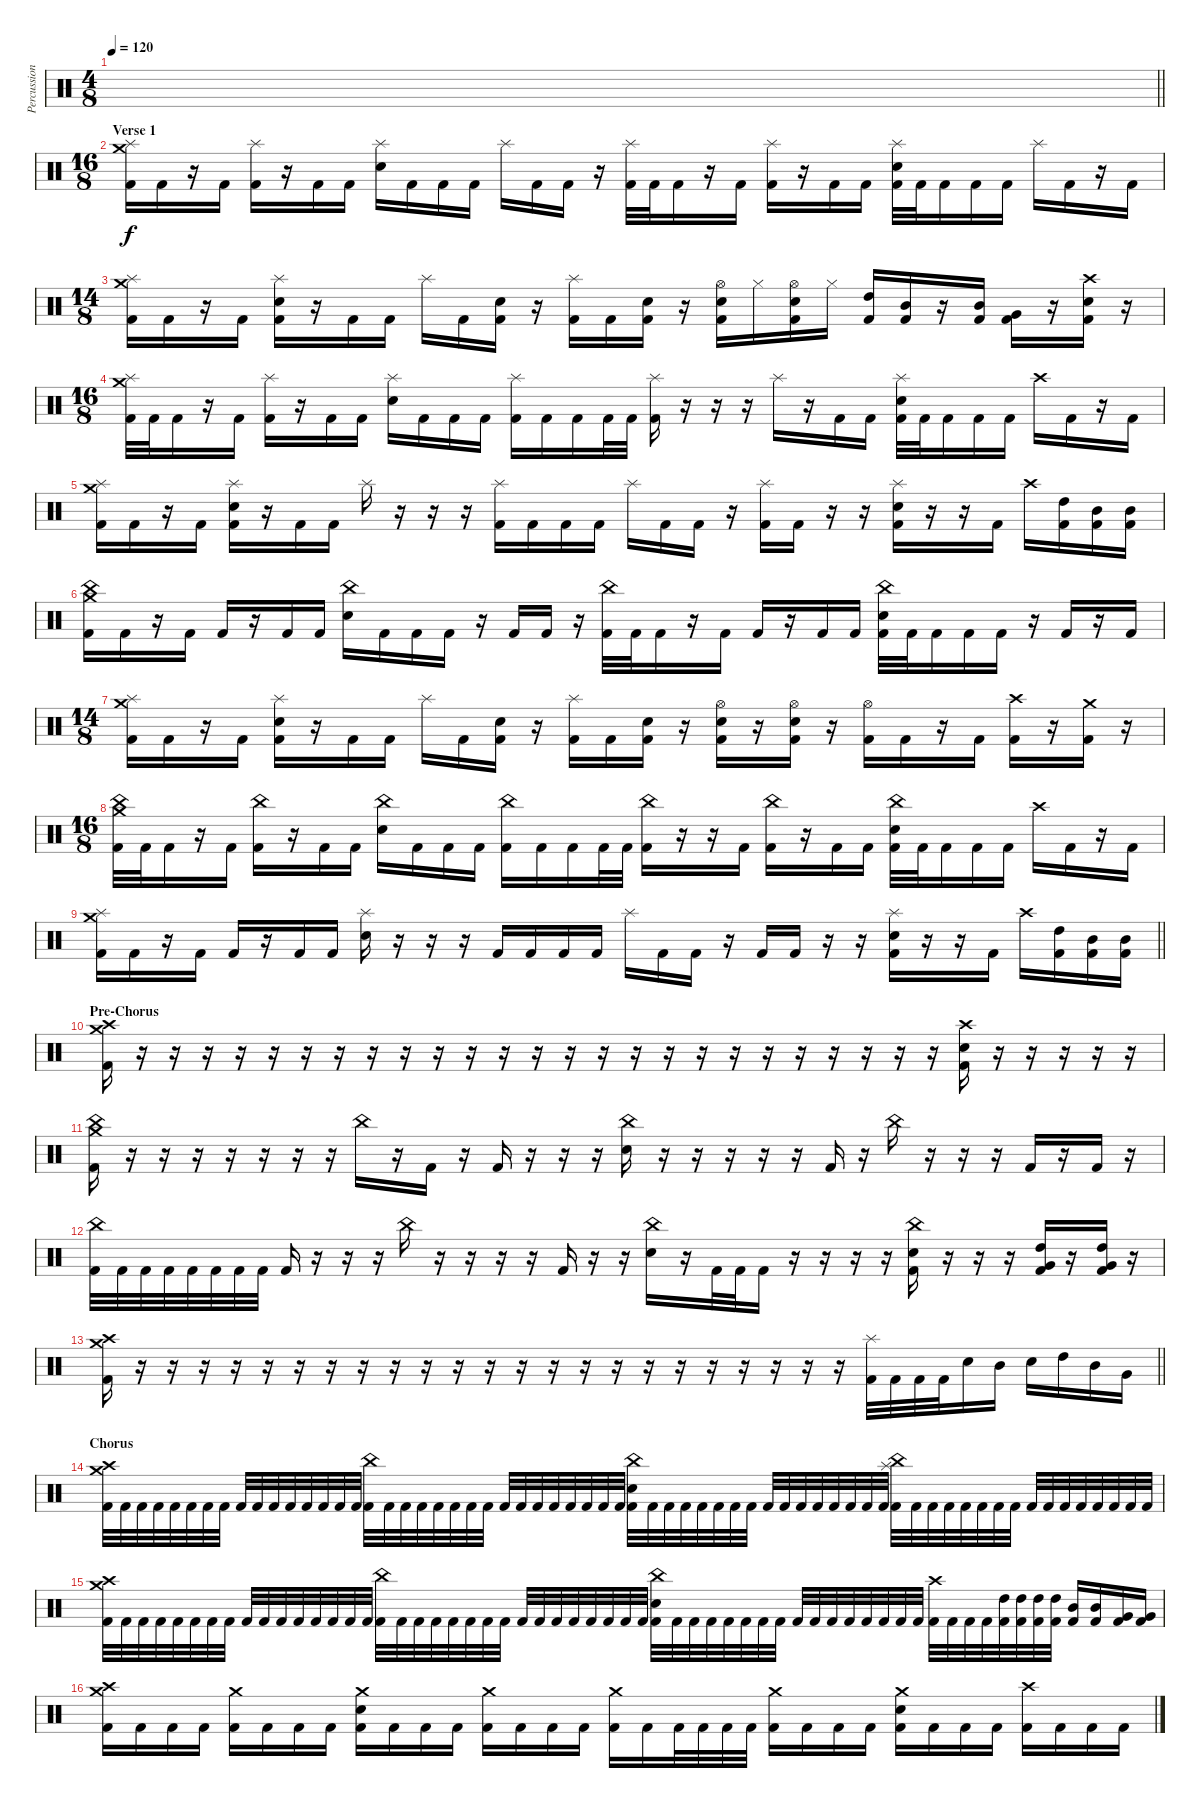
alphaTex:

\track ("Percussion" "Percussion") {instrument percussion}
\staff {score}
\articulation defaults
\ts (4 8)
\tempo 120
\clef neutral
\barLineRight lightlight
\ks c
|
\ts (16 8)
\section ("" "Verse 1")
("Crash medium (hit)" "Splash (hit)" "Kick (hit) 2").16 "Kick (hit) 2".16 r.16 "Kick (hit) 2".16 ("Splash (hit)" "Kick (hit) 2").16 r.16 "Kick (hit) 2".16 "Kick (hit) 2".16 ("Splash (hit)" "Snare (hit) 2").16 "Kick (hit) 2".16 "Kick (hit) 2".16 "Kick (hit) 2".16 "Splash (hit)".16 "Kick (hit) 2".16 "Kick (hit) 2".16 r.16 ("Splash (hit)" "Kick (hit) 2").32 "Kick (hit) 2".32 "Kick (hit) 2".16 r.16 "Kick (hit) 2".16 ("Splash (hit)" "Kick (hit) 2").16 r.16 "Kick (hit) 2".16 "Kick (hit) 2".16 ("Splash (hit)" "Snare (hit) 2" "Kick (hit) 2").32 "Kick (hit) 2".32 "Kick (hit) 2".16 "Kick (hit) 2".16 "Kick (hit) 2".16 "Splash (hit)".16 "Kick (hit) 2".16 r.16 "Kick (hit) 2".16 |
\ts (14 8)
("Crash medium (hit)" "Splash (hit)" "Kick (hit) 2").16 "Kick (hit) 2".16 r.16 "Kick (hit) 2".16 ("Splash (hit)" "Snare (hit) 2" "Kick (hit) 2").16 r.16 "Kick (hit) 2".16 "Kick (hit) 2".16 "Splash (hit)".16 "Kick (hit) 2".16 ("Snare (hit) 2" "Kick (hit) 2").16 r.16 ("Splash (hit)" "Kick (hit) 2").16 "Kick (hit) 2".16 ("Snare (hit) 2" "Kick (hit) 2").16 r.16 ("Hi-Hat (open)" "Snare (hit) 2" "Kick (hit) 2").16 "Hi-Hat (closed)".16 ("Hi-Hat (open)" "Snare (hit) 2" "Kick (hit) 2").16 "Hi-Hat (closed)".16 ("High Tom (hit)" "Kick (hit) 2").16 ("Mid Tom (hit)" "Kick (hit) 2").16 r.16 ("Mid Tom (hit)" "Kick (hit) 2").16 ("Very Low Tom (hit)" "Kick (hit) 2").16 r.16 ("Crash high (hit)" "Snare (hit) 2" "Kick (hit) 2").16 r.16 |
\ts (16 8)
("Crash medium (hit)" "Splash (hit)" "Kick (hit) 2").32 "Kick (hit) 2".32 "Kick (hit) 2".16 r.16 "Kick (hit) 2".16 ("Splash (hit)" "Kick (hit) 2").16 r.16 "Kick (hit) 2".16 "Kick (hit) 2".16 ("Splash (hit)" "Snare (hit) 2").16 "Kick (hit) 2".16 "Kick (hit) 2".16 "Kick (hit) 2".16 ("Splash (hit)" "Kick (hit) 2").16 "Kick (hit) 2".16 "Kick (hit) 2".16 "Kick (hit) 2".32 "Kick (hit) 2".32 ("Splash (hit)" "Kick (hit) 2").16 r.16 r.16 r.16 "Splash (hit)".16 r.16 "Kick (hit) 2".16 "Kick (hit) 2".16 ("Splash (hit)" "Snare (hit) 2" "Kick (hit) 2").32 "Kick (hit) 2".32 "Kick (hit) 2".16 "Kick (hit) 2".16 "Kick (hit) 2".16 "Crash high (hit)".16 "Kick (hit) 2".16 r.16 "Kick (hit) 2".16 |
("Crash medium (hit)" "Splash (hit)" "Kick (hit) 2").16 "Kick (hit) 2".16 r.16 "Kick (hit) 2".16 ("Splash (hit)" "Snare (hit) 2" "Kick (hit) 2").16 r.16 "Kick (hit) 2".16 "Kick (hit) 2".16 "Splash (hit)".16 r.16 r.16 r.16 ("Splash (hit)" "Kick (hit) 2").16 "Kick (hit) 2".16 "Kick (hit) 2".16 "Kick (hit) 2".16 "Splash (hit)".16 "Kick (hit) 2".16 "Kick (hit) 2".16 r.16 ("Splash (hit)" "Kick (hit) 2").16 "Kick (hit) 2".16 r.16 r.16 ("Splash (hit)" "Snare (hit) 2" "Kick (hit) 2").16 r.16 r.16 "Kick (hit) 2".16 "Crash high (hit)".16 ("High Tom (hit)" "Kick (hit) 2").16 ("Mid Tom (hit)" "Kick (hit) 2").16 ("Mid Tom (hit)" "Kick (hit) 2").16 |
("Crash medium (hit)" "China (hit)" "Kick (hit) 2").16 "Kick (hit) 2".16 r.16 "Kick (hit) 2".16 "Kick (hit) 2".16 r.16 "Kick (hit) 2".16 "Kick (hit) 2".16 ("China (hit)" "Snare (hit) 2").16 "Kick (hit) 2".16 "Kick (hit) 2".16 "Kick (hit) 2".16 r.16 "Kick (hit) 2".16 "Kick (hit) 2".16 r.16 ("China (hit)" "Kick (hit) 2").32 "Kick (hit) 2".32 "Kick (hit) 2".16 r.16 "Kick (hit) 2".16 "Kick (hit) 2".16 r.16 "Kick (hit) 2".16 "Kick (hit) 2".16 ("China (hit)" "Snare (hit) 2" "Kick (hit) 2").32 "Kick (hit) 2".32 "Kick (hit) 2".16 "Kick (hit) 2".16 "Kick (hit) 2".16 r.16 "Kick (hit) 2".16 r.16 "Kick (hit) 2".16 |
\ts (14 8)
("Crash medium (hit)" "Splash (hit)" "Kick (hit) 2").16 "Kick (hit) 2".16 r.16 "Kick (hit) 2".16 ("Splash (hit)" "Snare (hit) 2" "Kick (hit) 2").16 r.16 "Kick (hit) 2".16 "Kick (hit) 2".16 "Splash (hit)".16 "Kick (hit) 2".16 ("Snare (hit) 2" "Kick (hit) 2").16 r.16 ("Splash (hit)" "Kick (hit) 2").16 "Kick (hit) 2".16 ("Snare (hit) 2" "Kick (hit) 2").16 r.16 ("Hi-Hat (open)" "Snare (hit) 2" "Kick (hit) 2").16 r.16 ("Hi-Hat (open)" "Snare (hit) 2" "Kick (hit) 2").16 r.16 ("Hi-Hat (open)" "Kick (hit) 2").16 "Kick (hit) 2".16 r.16 "Kick (hit) 2".16 ("Crash high (hit)" "Kick (hit) 2").16 r.16 ("Crash medium (hit)" "Kick (hit) 2").16 r.16 |
\ts (16 8)
("Crash medium (hit)" "China (hit)" "Kick (hit) 2").32 "Kick (hit) 2".32 "Kick (hit) 2".16 r.16 "Kick (hit) 2".16 ("China (hit)" "Kick (hit) 2").16 r.16 "Kick (hit) 2".16 "Kick (hit) 2".16 ("China (hit)" "Snare (hit) 2").16 "Kick (hit) 2".16 "Kick (hit) 2".16 "Kick (hit) 2".16 ("China (hit)" "Kick (hit) 2").16 "Kick (hit) 2".16 "Kick (hit) 2".16 "Kick (hit) 2".32 "Kick (hit) 2".32 ("China (hit)" "Kick (hit) 2").16 r.16 r.16 "Kick (hit) 2".16 ("China (hit)" "Kick (hit) 2").16 r.16 "Kick (hit) 2".16 "Kick (hit) 2".16 ("China (hit)" "Snare (hit) 2" "Kick (hit) 2").32 "Kick (hit) 2".32 "Kick (hit) 2".16 "Kick (hit) 2".16 "Kick (hit) 2".16 "Crash high (hit)".16 "Kick (hit) 2".16 r.16 "Kick (hit) 2".16 |
\barLineRight lightlight
("Crash medium (hit)" "Splash (hit)" "Kick (hit) 2").16 "Kick (hit) 2".16 r.16 "Kick (hit) 2".16 "Kick (hit) 2".16 r.16 "Kick (hit) 2".16 "Kick (hit) 2".16 ("Splash (hit)" "Snare (hit) 2").16 r.16 r.16 r.16 "Kick (hit) 2".16 "Kick (hit) 2".16 "Kick (hit) 2".16 "Kick (hit) 2".16 "Splash (hit)".16 "Kick (hit) 2".16 "Kick (hit) 2".16 r.16 "Kick (hit) 2".16 "Kick (hit) 2".16 r.16 r.16 ("Splash (hit)" "Snare (hit) 2" "Kick (hit) 2").16 r.16 r.16 "Kick (hit) 2".16 "Crash high (hit)".16 ("High Tom (hit)" "Kick (hit) 2").16 ("Mid Tom (hit)" "Kick (hit) 2").16 ("Mid Tom (hit)" "Kick (hit) 2").16 |
\section ("" "Pre-Chorus")
("Crash high (hit)" "Crash medium (hit)" "Kick (hit) 2").16 r.16 r.16 r.16 r.16 r.16 r.16 r.16 r.16 r.16 r.16 r.16 r.16 r.16 r.16 r.16 r.16 r.16 r.16 r.16 r.16 r.16 r.16 r.16 r.16 r.16 ("Crash high (hit)" "Snare (hit) 2" "Kick (hit) 2").16 r.16 r.16 r.16 r.16 r.16 |
("Crash medium (hit)" "China (hit)" "Kick (hit) 2").16 r.16 r.16 r.16 r.16 r.16 r.16 r.16 "China (hit)".16 r.16 "Kick (hit) 2".16 r.16 "Kick (hit) 2".16 r.16 r.16 r.16 ("China (hit)" "Snare (hit) 2").16 r.16 r.16 r.16 r.16 r.16 "Kick (hit) 2".16 r.16 "China (hit)".16 r.16 r.16 r.16 "Kick (hit) 2".16 r.16 "Kick (hit) 2".16 r.16 |
("China (hit)" "Kick (hit) 2").32 "Kick (hit) 2".32 "Kick (hit) 2".32 "Kick (hit) 2".32 "Kick (hit) 2".32 "Kick (hit) 2".32 "Kick (hit) 2".32 "Kick (hit) 2".32 "Kick (hit) 2".16 r.16 r.16 r.16 "China (hit)".16 r.16 r.16 r.16 r.16 "Kick (hit) 2".16 r.16 r.16 ("China (hit)" "Snare (hit) 2").16 r.16 "Kick (hit) 2".32 "Kick (hit) 2".32 "Kick (hit) 2".16 r.16 r.16 r.16 r.16 ("China (hit)" "Snare (hit) 2" "Kick (hit) 2").16 r.16 r.16 r.16 ("High Tom (hit)" "Very Low Tom (hit)" "Kick (hit) 2").16 r.16 ("High Tom (hit)" "Very Low Tom (hit)" "Kick (hit) 2").16 r.16 |
\barLineRight lightlight
("Crash high (hit)" "Crash medium (hit)" "Kick (hit) 2").16 r.16 r.16 r.16 r.16 r.16 r.16 r.16 r.16 r.16 r.16 r.16 r.16 r.16 r.16 r.16 r.16 r.16 r.16 r.16 r.16 r.16 r.16 r.16 ("Splash (hit)" "Kick (hit) 2").32 "Kick (hit) 2".32 "Kick (hit) 2".32 "Kick (hit) 2".32 "Snare (hit) 2".16 "Mid Tom (hit)".16 "Snare (hit) 2".16 "High Tom (hit)".16 "Mid Tom (hit)".16 "Very Low Tom (hit)".16 |
\section ("" "Chorus")
("Crash medium (hit)" "Crash high (hit)" "Kick (hit) 2").32 "Kick (hit) 2".32 "Kick (hit) 2".32 "Kick (hit) 2".32 "Kick (hit) 2".32 "Kick (hit) 2".32 "Kick (hit) 2".32 "Kick (hit) 2".32 "Kick (hit) 2".32 "Kick (hit) 2".32 "Kick (hit) 2".32 "Kick (hit) 2".32 "Kick (hit) 2".32 "Kick (hit) 2".32 "Kick (hit) 2".32 "Kick (hit) 2".32 ("China (hit)" "Kick (hit) 2").32 "Kick (hit) 2".32 "Kick (hit) 2".32 "Kick (hit) 2".32 "Kick (hit) 2".32 "Kick (hit) 2".32 "Kick (hit) 2".32 "Kick (hit) 2".32 "Kick (hit) 2".32 "Kick (hit) 2".32 "Kick (hit) 2".32 "Kick (hit) 2".32 "Kick (hit) 2".32 "Kick (hit) 2".32 "Kick (hit) 2".32 "Kick (hit) 2".32 ("China (hit)" "Snare (hit) 2" "Kick (hit) 2").32 "Kick (hit) 2".32 "Kick (hit) 2".32 "Kick (hit) 2".32 "Kick (hit) 2".32 "Kick (hit) 2".32 "Kick (hit) 2".32 "Kick (hit) 2".32 "Kick (hit) 2".32 "Kick (hit) 2".32 "Kick (hit) 2".32 "Kick (hit) 2".32 "Kick (hit) 2".32 "Kick (hit) 2".32 "Kick (hit) 2".32 "Kick (hit) 2".32 ("Splash (hit)" "China (hit)" "Kick (hit) 2").32 "Kick (hit) 2".32 "Kick (hit) 2".32 "Kick (hit) 2".32 "Kick (hit) 2".32 "Kick (hit) 2".32 "Kick (hit) 2".32 "Kick (hit) 2".32 "Kick (hit) 2".32 "Kick (hit) 2".32 "Kick (hit) 2".32 "Kick (hit) 2".32 "Kick (hit) 2".32 "Kick (hit) 2".32 "Kick (hit) 2".32 "Kick (hit) 2".32 |
("Crash medium (hit)" "Crash high (hit)" "Kick (hit) 2").32 "Kick (hit) 2".32 "Kick (hit) 2".32 "Kick (hit) 2".32 "Kick (hit) 2".32 "Kick (hit) 2".32 "Kick (hit) 2".32 "Kick (hit) 2".32 "Kick (hit) 2".32 "Kick (hit) 2".32 "Kick (hit) 2".32 "Kick (hit) 2".32 "Kick (hit) 2".32 "Kick (hit) 2".32 "Kick (hit) 2".32 "Kick (hit) 2".32 ("China (hit)" "Kick (hit) 2").32 "Kick (hit) 2".32 "Kick (hit) 2".32 "Kick (hit) 2".32 "Kick (hit) 2".32 "Kick (hit) 2".32 "Kick (hit) 2".32 "Kick (hit) 2".32 "Kick (hit) 2".32 "Kick (hit) 2".32 "Kick (hit) 2".32 "Kick (hit) 2".32 "Kick (hit) 2".32 "Kick (hit) 2".32 "Kick (hit) 2".32 "Kick (hit) 2".32 ("China (hit)" "Snare (hit) 2" "Kick (hit) 2").32 "Kick (hit) 2".32 "Kick (hit) 2".32 "Kick (hit) 2".32 "Kick (hit) 2".32 "Kick (hit) 2".32 "Kick (hit) 2".32 "Kick (hit) 2".32 "Kick (hit) 2".32 "Kick (hit) 2".32 "Kick (hit) 2".32 "Kick (hit) 2".32 "Kick (hit) 2".32 "Kick (hit) 2".32 "Kick (hit) 2".32 "Kick (hit) 2".32 ("Crash high (hit)" "Kick (hit) 2").32 "Kick (hit) 2".32 "Kick (hit) 2".32 "Kick (hit) 2".32 ("High Tom (hit)" "Kick (hit) 2").32 ("High Tom (hit)" "Kick (hit) 2").32 ("High Tom (hit)" "Kick (hit) 2").32 ("High Tom (hit)" "Kick (hit) 2").32 ("Mid Tom (hit)" "Kick (hit) 2").16 ("Mid Tom (hit)" "Kick (hit) 2").16 ("Very Low Tom (hit)" "Kick (hit) 2").16 ("Very Low Tom (hit)" "Kick (hit) 2").16 |
("Crash high (hit)" "Crash medium (hit)" "Kick (hit) 2").16 "Kick (hit) 2".16 "Kick (hit) 2".16 "Kick (hit) 2".16 ("Crash medium (hit)" "Kick (hit) 2").16 "Kick (hit) 2".16 "Kick (hit) 2".16 "Kick (hit) 2".16 ("Crash medium (hit)" "Snare (hit) 2" "Kick (hit) 2").16 "Kick (hit) 2".16 "Kick (hit) 2".16 "Kick (hit) 2".16 ("Crash medium (hit)" "Kick (hit) 2").16 "Kick (hit) 2".16 "Kick (hit) 2".16 "Kick (hit) 2".16 ("Crash medium (hit)" "Kick (hit) 2").16 "Kick (hit) 2".16 "Kick (hit) 2".32 "Kick (hit) 2".32 "Kick (hit) 2".32 "Kick (hit) 2".32 ("Crash medium (hit)" "Kick (hit) 2").16 "Kick (hit) 2".16 "Kick (hit) 2".16 "Kick (hit) 2".16 ("Crash medium (hit)" "Snare (hit) 2" "Kick (hit) 2").16 "Kick (hit) 2".16 "Kick (hit) 2".16 "Kick (hit) 2".16 ("Crash high (hit)" "Kick (hit) 2").16 "Kick (hit) 2".16 "Kick (hit) 2".16 "Kick (hit) 2".16
